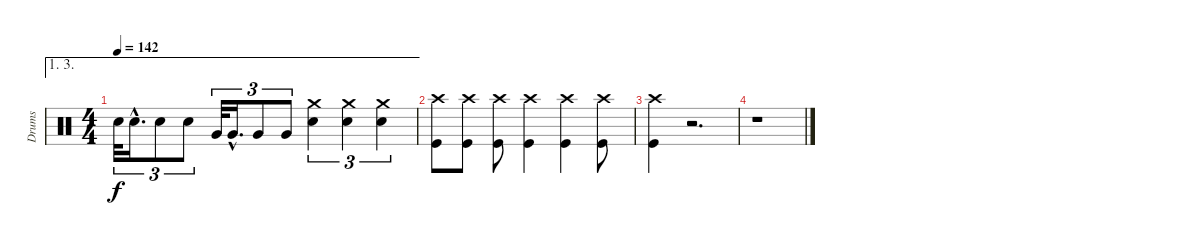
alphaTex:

\track ("Drums" "Drums") {instrument percussion}
\staff {score}
\articulation defaults
\ae (1 3)
\ts (4 4)
\tempo 142
\clef neutral
\ks c "Electric Snare (hit)".32{tu (3 2) dy f} "Electric Snare (hit)"{hac}.16{d tu (3 2)} "Electric Snare (hit)".8{tu (3 2)} "Electric Snare (hit)".8{tu (3 2)} "Very Low Tom (hit)".32{tu (3 2)} "Very Low Tom (hit)"{hac}.16{d tu (3 2)} "Very Low Tom (hit)".8{tu (3 2)} "Very Low Tom (hit)".8{tu (3 2)}
("Crash medium (hit)" "Electric Snare (hit)").4{tu (3 2)} ("Crash medium (hit)" "Electric Snare (hit)").4{tu (3 2)} ("Crash medium (hit)" "Electric Snare (hit)").4{tu (3 2)} |
("Crash high (hit)" "Kick (hit)").8 ("Crash high (hit)" "Kick (hit)").8 ("Crash high (hit)" "Kick (hit)").8 ("Crash high (hit)" "Kick (hit)").4 ("Crash high (hit)" "Kick (hit)").4 ("Crash high (hit)" "Kick (hit)").8 |
("Crash high (hit)" "Kick (hit)").4 r.2{d volume 6} |
r.1
